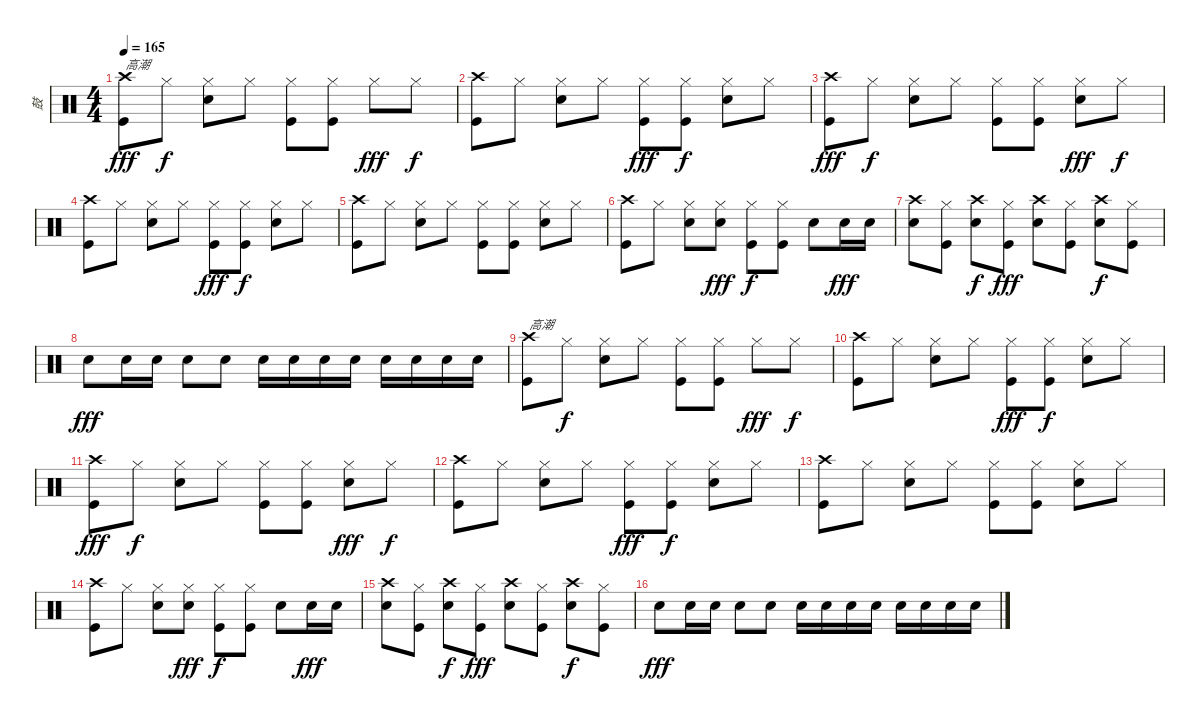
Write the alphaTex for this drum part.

\track ("鼓" "鼓") {instrument percussion}
\staff {score}
\articulation defaults
\ts (4 4)
\tempo 165
\clef neutral
\ks c
("Crash high (hit)" "Kick (hit)").8{txt "高潮" dy fff} "Hi-Hat (closed)".8{dy f} ("Hi-Hat (closed)" "Snare (hit) 2").8 "Hi-Hat (closed)".8 ("Hi-Hat (closed)" "Kick (hit)").8 ("Hi-Hat (closed)" "Kick (hit)").8 "Hi-Hat (closed)".8{dy fff} "Hi-Hat (closed)".8{dy f} |
("Crash high (hit)" "Kick (hit)").8 "Hi-Hat (closed)".8 ("Hi-Hat (closed)" "Snare (hit) 2").8 "Hi-Hat (closed)".8 ("Hi-Hat (closed)" "Kick (hit)").8{dy fff} ("Hi-Hat (closed)" "Kick (hit)").8{dy f} ("Hi-Hat (closed)" "Snare (hit) 2").8 "Hi-Hat (closed)".8 |
("Crash high (hit)" "Kick (hit)").8{dy fff} "Hi-Hat (closed)".8{dy f} ("Hi-Hat (closed)" "Snare (hit) 2").8 "Hi-Hat (closed)".8 ("Hi-Hat (closed)" "Kick (hit)").8 ("Hi-Hat (closed)" "Kick (hit)").8 ("Hi-Hat (closed)" "Snare (hit) 2").8{dy fff} "Hi-Hat (closed)".8{dy f} |
("Crash high (hit)" "Kick (hit)").8 "Hi-Hat (closed)".8 ("Hi-Hat (closed)" "Snare (hit) 2").8 "Hi-Hat (closed)".8 ("Hi-Hat (closed)" "Kick (hit)").8{dy fff} ("Hi-Hat (closed)" "Kick (hit)").8{dy f} ("Hi-Hat (closed)" "Snare (hit) 2").8 "Hi-Hat (closed)".8 |
("Crash high (hit)" "Kick (hit)").8 "Hi-Hat (closed)".8 ("Hi-Hat (closed)" "Snare (hit) 2").8 "Hi-Hat (closed)".8 ("Hi-Hat (closed)" "Kick (hit)").8 ("Hi-Hat (closed)" "Kick (hit)").8 ("Hi-Hat (closed)" "Snare (hit) 2").8 "Hi-Hat (closed)".8 |
("Crash high (hit)" "Kick (hit)").8 "Hi-Hat (closed)".8 ("Hi-Hat (closed)" "Snare (hit) 2").8 ("Hi-Hat (closed)" "Snare (hit) 2").8{dy fff} ("Hi-Hat (closed)" "Kick (hit)").8{dy f} ("Hi-Hat (closed)" "Kick (hit)").8 "Snare (hit) 2".8 "Snare (hit) 2".16{dy fff} "Snare (hit) 2".16 |
("Crash high (hit)" "Snare (hit) 2").8 ("Hi-Hat (closed)" "Kick (hit)").8 ("Crash high (hit)" "Snare (hit) 2").8{dy f} ("Hi-Hat (closed)" "Kick (hit)").8{dy fff} ("Crash high (hit)" "Snare (hit) 2").8 ("Hi-Hat (closed)" "Kick (hit)").8 ("Crash high (hit)" "Snare (hit) 2").8{dy f} ("Hi-Hat (closed)" "Kick (hit)").8 |
"Snare (hit) 2".8{dy fff} "Snare (hit) 2".16 "Snare (hit) 2".16 "Snare (hit) 2".8 "Snare (hit) 2".8 "Snare (hit) 2".16 "Snare (hit) 2".16 "Snare (hit) 2".16 "Snare (hit) 2".16 "Snare (hit) 2".16 "Snare (hit) 2".16 "Snare (hit) 2".16 "Snare (hit) 2".16 |
("Crash high (hit)" "Kick (hit)").8{txt "高潮"} "Hi-Hat (closed)".8{dy f} ("Hi-Hat (closed)" "Snare (hit) 2").8 "Hi-Hat (closed)".8 ("Hi-Hat (closed)" "Kick (hit)").8 ("Hi-Hat (closed)" "Kick (hit)").8 "Hi-Hat (closed)".8{dy fff} "Hi-Hat (closed)".8{dy f} |
("Crash high (hit)" "Kick (hit)").8 "Hi-Hat (closed)".8 ("Hi-Hat (closed)" "Snare (hit) 2").8 "Hi-Hat (closed)".8 ("Hi-Hat (closed)" "Kick (hit)").8{dy fff} ("Hi-Hat (closed)" "Kick (hit)").8{dy f} ("Hi-Hat (closed)" "Snare (hit) 2").8 "Hi-Hat (closed)".8 |
("Crash high (hit)" "Kick (hit)").8{dy fff} "Hi-Hat (closed)".8{dy f} ("Hi-Hat (closed)" "Snare (hit) 2").8 "Hi-Hat (closed)".8 ("Hi-Hat (closed)" "Kick (hit)").8 ("Hi-Hat (closed)" "Kick (hit)").8 ("Hi-Hat (closed)" "Snare (hit) 2").8{dy fff} "Hi-Hat (closed)".8{dy f} |
("Crash high (hit)" "Kick (hit)").8 "Hi-Hat (closed)".8 ("Hi-Hat (closed)" "Snare (hit) 2").8 "Hi-Hat (closed)".8 ("Hi-Hat (closed)" "Kick (hit)").8{dy fff} ("Hi-Hat (closed)" "Kick (hit)").8{dy f} ("Hi-Hat (closed)" "Snare (hit) 2").8 "Hi-Hat (closed)".8 |
("Crash high (hit)" "Kick (hit)").8 "Hi-Hat (closed)".8 ("Hi-Hat (closed)" "Snare (hit) 2").8 "Hi-Hat (closed)".8 ("Hi-Hat (closed)" "Kick (hit)").8 ("Hi-Hat (closed)" "Kick (hit)").8 ("Hi-Hat (closed)" "Snare (hit) 2").8 "Hi-Hat (closed)".8 |
("Crash high (hit)" "Kick (hit)").8 "Hi-Hat (closed)".8 ("Hi-Hat (closed)" "Snare (hit) 2").8 ("Hi-Hat (closed)" "Snare (hit) 2").8{dy fff} ("Hi-Hat (closed)" "Kick (hit)").8{dy f} ("Hi-Hat (closed)" "Kick (hit)").8 "Snare (hit) 2".8 "Snare (hit) 2".16{dy fff} "Snare (hit) 2".16 |
("Crash high (hit)" "Snare (hit) 2").8 ("Hi-Hat (closed)" "Kick (hit)").8 ("Crash high (hit)" "Snare (hit) 2").8{dy f} ("Hi-Hat (closed)" "Kick (hit)").8{dy fff} ("Crash high (hit)" "Snare (hit) 2").8 ("Hi-Hat (closed)" "Kick (hit)").8 ("Crash high (hit)" "Snare (hit) 2").8{dy f} ("Hi-Hat (closed)" "Kick (hit)").8 |
"Snare (hit) 2".8{dy fff} "Snare (hit) 2".16 "Snare (hit) 2".16 "Snare (hit) 2".8 "Snare (hit) 2".8 "Snare (hit) 2".16 "Snare (hit) 2".16 "Snare (hit) 2".16 "Snare (hit) 2".16 "Snare (hit) 2".16 "Snare (hit) 2".16 "Snare (hit) 2".16 "Snare (hit) 2".16
